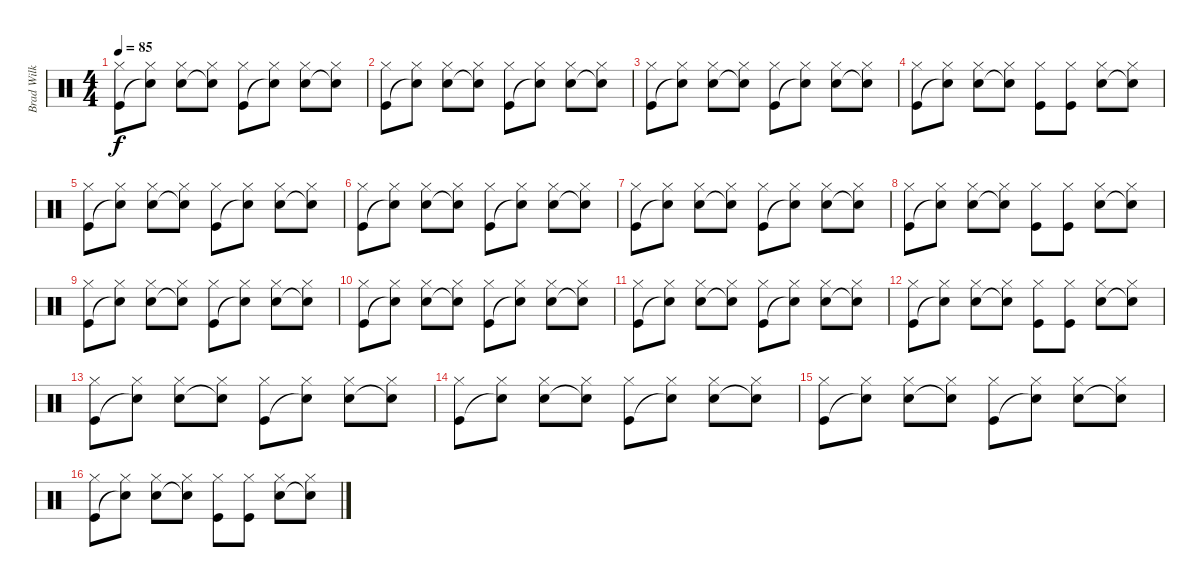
\track ("Brad Wilk" "Brad Wilk") {instrument percussion}
\staff {score}
\articulation defaults
\ts (4 4)
\tempo 85
\clef neutral
\ks c
("Hi-Hat (closed)" "Kick (hit)").8{dy f} ("Hi-Hat (closed)" "Snare (hit)"{t}).8 ("Hi-Hat (closed)" "Snare (hit) 2").8 ("Hi-Hat (closed)" "Snare (hit)"{t}).8 ("Hi-Hat (closed)" "Kick (hit)").8 ("Hi-Hat (closed)" "Snare (hit)"{t}).8 ("Hi-Hat (closed)" "Snare (hit) 2").8 ("Hi-Hat (closed)" "Snare (hit)"{t}).8 |
("Hi-Hat (closed)" "Kick (hit)").8 ("Hi-Hat (closed)" "Snare (hit)"{t}).8 ("Hi-Hat (closed)" "Snare (hit) 2").8 ("Hi-Hat (closed)" "Snare (hit)"{t}).8 ("Hi-Hat (closed)" "Kick (hit)").8 ("Hi-Hat (closed)" "Snare (hit)"{t}).8 ("Hi-Hat (closed)" "Snare (hit) 2").8 ("Hi-Hat (closed)" "Snare (hit)"{t}).8 |
("Hi-Hat (closed)" "Kick (hit)").8 ("Hi-Hat (closed)" "Snare (hit)"{t}).8 ("Hi-Hat (closed)" "Snare (hit) 2").8 ("Hi-Hat (closed)" "Snare (hit)"{t}).8 ("Hi-Hat (closed)" "Kick (hit)").8 ("Hi-Hat (closed)" "Snare (hit)"{t}).8 ("Hi-Hat (closed)" "Snare (hit) 2").8 ("Hi-Hat (closed)" "Snare (hit)"{t}).8 |
("Hi-Hat (closed)" "Kick (hit)").8 ("Hi-Hat (closed)" "Snare (hit)"{t}).8 ("Hi-Hat (closed)" "Snare (hit) 2").8 ("Hi-Hat (closed)" "Snare (hit)"{t}).8 ("Hi-Hat (closed)" "Kick (hit)").8 ("Hi-Hat (closed)" "Kick (hit)").8 ("Hi-Hat (closed)" "Snare (hit) 2").8 ("Hi-Hat (closed)" "Snare (hit)"{t}).8 |
("Hi-Hat (closed)" "Kick (hit)").8 ("Hi-Hat (closed)" "Snare (hit)"{t}).8 ("Hi-Hat (closed)" "Snare (hit) 2").8 ("Hi-Hat (closed)" "Snare (hit)"{t}).8 ("Hi-Hat (closed)" "Kick (hit)").8 ("Hi-Hat (closed)" "Snare (hit)"{t}).8 ("Hi-Hat (closed)" "Snare (hit) 2").8 ("Hi-Hat (closed)" "Snare (hit)"{t}).8 |
("Hi-Hat (closed)" "Kick (hit)").8 ("Hi-Hat (closed)" "Snare (hit)"{t}).8 ("Hi-Hat (closed)" "Snare (hit) 2").8 ("Hi-Hat (closed)" "Snare (hit)"{t}).8 ("Hi-Hat (closed)" "Kick (hit)").8 ("Hi-Hat (closed)" "Snare (hit)"{t}).8 ("Hi-Hat (closed)" "Snare (hit) 2").8 ("Hi-Hat (closed)" "Snare (hit)"{t}).8 |
("Hi-Hat (closed)" "Kick (hit)").8 ("Hi-Hat (closed)" "Snare (hit)"{t}).8 ("Hi-Hat (closed)" "Snare (hit) 2").8 ("Hi-Hat (closed)" "Snare (hit)"{t}).8 ("Hi-Hat (closed)" "Kick (hit)").8 ("Hi-Hat (closed)" "Snare (hit)"{t}).8 ("Hi-Hat (closed)" "Snare (hit) 2").8 ("Hi-Hat (closed)" "Snare (hit)"{t}).8 |
("Hi-Hat (closed)" "Kick (hit)").8 ("Hi-Hat (closed)" "Snare (hit)"{t}).8 ("Hi-Hat (closed)" "Snare (hit) 2").8 ("Hi-Hat (closed)" "Snare (hit)"{t}).8 ("Hi-Hat (closed)" "Kick (hit)").8 ("Hi-Hat (closed)" "Kick (hit)").8 ("Hi-Hat (closed)" "Snare (hit) 2").8 ("Hi-Hat (closed)" "Snare (hit)"{t}).8 |
("Hi-Hat (closed)" "Kick (hit)").8 ("Hi-Hat (closed)" "Snare (hit)"{t}).8 ("Hi-Hat (closed)" "Snare (hit) 2").8 ("Hi-Hat (closed)" "Snare (hit)"{t}).8 ("Hi-Hat (closed)" "Kick (hit)").8 ("Hi-Hat (closed)" "Snare (hit)"{t}).8 ("Hi-Hat (closed)" "Snare (hit) 2").8 ("Hi-Hat (closed)" "Snare (hit)"{t}).8 |
("Hi-Hat (closed)" "Kick (hit)").8 ("Hi-Hat (closed)" "Snare (hit)"{t}).8 ("Hi-Hat (closed)" "Snare (hit) 2").8 ("Hi-Hat (closed)" "Snare (hit)"{t}).8 ("Hi-Hat (closed)" "Kick (hit)").8 ("Hi-Hat (closed)" "Snare (hit)"{t}).8 ("Hi-Hat (closed)" "Snare (hit) 2").8 ("Hi-Hat (closed)" "Snare (hit)"{t}).8 |
("Hi-Hat (closed)" "Kick (hit)").8 ("Hi-Hat (closed)" "Snare (hit)"{t}).8 ("Hi-Hat (closed)" "Snare (hit) 2").8 ("Hi-Hat (closed)" "Snare (hit)"{t}).8 ("Hi-Hat (closed)" "Kick (hit)").8 ("Hi-Hat (closed)" "Snare (hit)"{t}).8 ("Hi-Hat (closed)" "Snare (hit) 2").8 ("Hi-Hat (closed)" "Snare (hit)"{t}).8 |
("Hi-Hat (closed)" "Kick (hit)").8 ("Hi-Hat (closed)" "Snare (hit)"{t}).8 ("Hi-Hat (closed)" "Snare (hit) 2").8 ("Hi-Hat (closed)" "Snare (hit)"{t}).8 ("Hi-Hat (closed)" "Kick (hit)").8 ("Hi-Hat (closed)" "Kick (hit)").8 ("Hi-Hat (closed)" "Snare (hit) 2").8 ("Hi-Hat (closed)" "Snare (hit)"{t}).8 |
("Hi-Hat (closed)" "Kick (hit)").8 ("Hi-Hat (closed)" "Snare (hit)"{t}).8 ("Hi-Hat (closed)" "Snare (hit) 2").8 ("Hi-Hat (closed)" "Snare (hit)"{t}).8 ("Hi-Hat (closed)" "Kick (hit)").8 ("Hi-Hat (closed)" "Snare (hit)"{t}).8 ("Hi-Hat (closed)" "Snare (hit) 2").8 ("Hi-Hat (closed)" "Snare (hit)"{t}).8 |
("Hi-Hat (closed)" "Kick (hit)").8 ("Hi-Hat (closed)" "Snare (hit)"{t}).8 ("Hi-Hat (closed)" "Snare (hit) 2").8 ("Hi-Hat (closed)" "Snare (hit)"{t}).8 ("Hi-Hat (closed)" "Kick (hit)").8 ("Hi-Hat (closed)" "Snare (hit)"{t}).8 ("Hi-Hat (closed)" "Snare (hit) 2").8 ("Hi-Hat (closed)" "Snare (hit)"{t}).8 |
("Hi-Hat (closed)" "Kick (hit)").8 ("Hi-Hat (closed)" "Snare (hit)"{t}).8 ("Hi-Hat (closed)" "Snare (hit) 2").8 ("Hi-Hat (closed)" "Snare (hit)"{t}).8 ("Hi-Hat (closed)" "Kick (hit)").8 ("Hi-Hat (closed)" "Snare (hit)"{t}).8 ("Hi-Hat (closed)" "Snare (hit) 2").8 ("Hi-Hat (closed)" "Snare (hit)"{t}).8 |
("Hi-Hat (closed)" "Kick (hit)").8 ("Hi-Hat (closed)" "Snare (hit)"{t}).8 ("Hi-Hat (closed)" "Snare (hit) 2").8 ("Hi-Hat (closed)" "Snare (hit)"{t}).8 ("Hi-Hat (closed)" "Kick (hit)").8 ("Hi-Hat (closed)" "Kick (hit)").8 ("Hi-Hat (closed)" "Snare (hit) 2").8 ("Hi-Hat (closed)" "Snare (hit)"{t}).8
